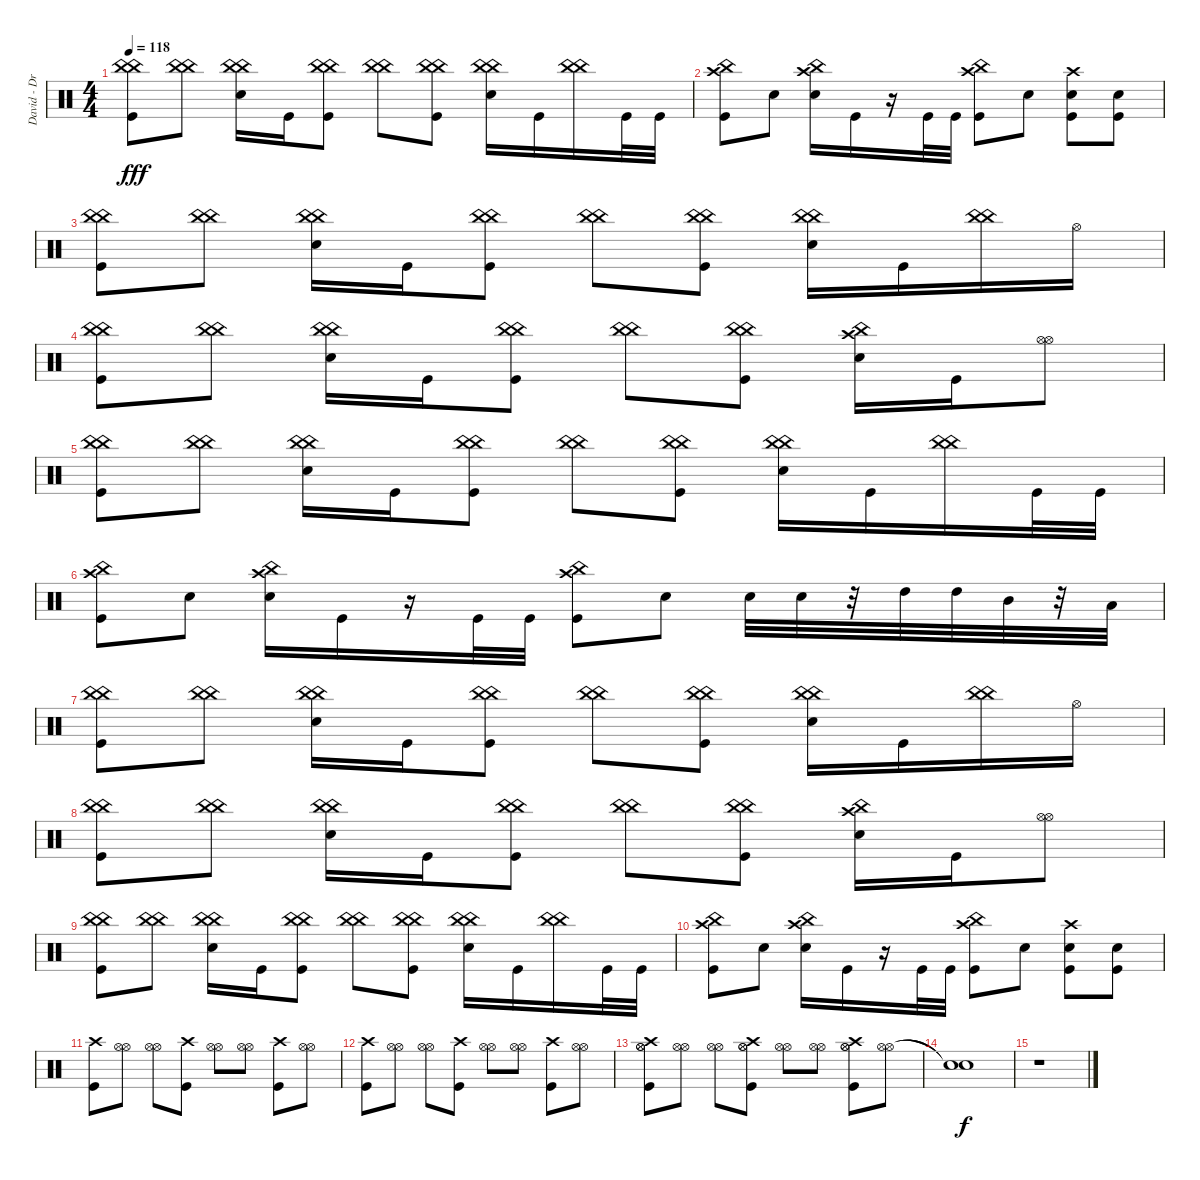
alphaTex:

\track ("David - Drums" "David - Dr") {instrument percussion}
\staff {score}
\articulation defaults
\ts (4 4)
\tempo 118
\clef neutral
\ks c
("China (hit)" "China (hit)" "Kick (hit)").8{dy fff} ("China (hit)" "China (hit)").8 ("China (hit)" "China (hit)" "Snare (hit) 2").16 "Kick (hit)".16 ("China (hit)" "China (hit)" "Kick (hit)").8 ("China (hit)" "China (hit)").8 ("China (hit)" "China (hit)" "Kick (hit)").8 ("China (hit)" "China (hit)" "Snare (hit) 2").16 "Kick (hit)".16 ("China (hit)" "China (hit)").16 "Kick (hit)".32 "Kick (hit)".32 |
("Crash high (hit)" "China (hit)" "Kick (hit)").8 "Snare (hit) 2".8 ("Crash high (hit)" "China (hit)" "Snare (hit) 2").16 "Kick (hit)".16 r.16 "Kick (hit)".32 "Kick (hit)".32 ("Crash high (hit)" "China (hit)" "Kick (hit)").8 "Snare (hit) 2".8 ("Crash high (hit)" "Snare (hit) 2" "Kick (hit)").8 ("Snare (hit) 2" "Kick (hit)").8 |
("China (hit)" "China (hit)" "Kick (hit)").8 ("China (hit)" "China (hit)").8 ("China (hit)" "China (hit)" "Snare (hit) 2").16 "Kick (hit)".16 ("China (hit)" "China (hit)" "Kick (hit)").8 ("China (hit)" "China (hit)").8 ("China (hit)" "China (hit)" "Kick (hit)").8 ("China (hit)" "China (hit)" "Snare (hit) 2").16 "Kick (hit)".16 ("China (hit)" "China (hit)").16 "Hi-Hat (open)".16 |
("China (hit)" "China (hit)" "Kick (hit)").8 ("China (hit)" "China (hit)").8 ("China (hit)" "China (hit)" "Snare (hit) 2").16 "Kick (hit)".16 ("China (hit)" "China (hit)" "Kick (hit)").8 ("China (hit)" "China (hit)").8 ("China (hit)" "China (hit)" "Kick (hit)").8 ("Crash high (hit)" "China (hit)" "Snare (hit) 2").16 "Kick (hit)".16 ("Hi-Hat (open)" "Hi-Hat (open)").8 |
("China (hit)" "China (hit)" "Kick (hit)").8 ("China (hit)" "China (hit)").8 ("China (hit)" "China (hit)" "Snare (hit) 2").16 "Kick (hit)".16 ("China (hit)" "China (hit)" "Kick (hit)").8 ("China (hit)" "China (hit)").8 ("China (hit)" "China (hit)" "Kick (hit)").8 ("China (hit)" "China (hit)" "Snare (hit) 2").16 "Kick (hit)".16 ("China (hit)" "China (hit)").16 "Kick (hit)".32 "Kick (hit)".32 |
("Crash high (hit)" "China (hit)" "Kick (hit)").8 "Snare (hit) 2".8 ("China (hit)" "Crash high (hit)" "Snare (hit) 2").16 "Kick (hit)".16 r.16 "Kick (hit)".32 "Kick (hit)".32 ("Crash high (hit)" "China (hit)" "Kick (hit)").8 "Snare (hit) 2".8 "Snare (hit) 2".32 "Snare (hit) 2".32 r.32 "High Tom (hit)".32 "High Tom (hit)".32 "Mid Tom (hit)".32 r.32 "Low Tom (hit)".32 |
("China (hit)" "China (hit)" "Kick (hit)").8 ("China (hit)" "China (hit)").8 ("China (hit)" "China (hit)" "Snare (hit) 2").16 "Kick (hit)".16 ("China (hit)" "China (hit)" "Kick (hit)").8 ("China (hit)" "China (hit)").8 ("China (hit)" "China (hit)" "Kick (hit)").8 ("China (hit)" "China (hit)" "Snare (hit) 2").16 "Kick (hit)".16 ("China (hit)" "China (hit)").16 "Hi-Hat (open)".16 |
("China (hit)" "China (hit)" "Kick (hit)").8 ("China (hit)" "China (hit)").8 ("China (hit)" "China (hit)" "Snare (hit) 2").16 "Kick (hit)".16 ("China (hit)" "China (hit)" "Kick (hit)").8 ("China (hit)" "China (hit)").8 ("China (hit)" "China (hit)" "Kick (hit)").8 ("Crash high (hit)" "China (hit)" "Snare (hit) 2").16 "Kick (hit)".16 ("Hi-Hat (open)" "Hi-Hat (open)").8 |
("China (hit)" "China (hit)" "Kick (hit)").8 ("China (hit)" "China (hit)").8 ("China (hit)" "China (hit)" "Snare (hit) 2").16 "Kick (hit)".16 ("China (hit)" "China (hit)" "Kick (hit)").8 ("China (hit)" "China (hit)").8 ("China (hit)" "China (hit)" "Kick (hit)").8 ("China (hit)" "China (hit)" "Snare (hit) 2").16 "Kick (hit)".16 ("China (hit)" "China (hit)").16 "Kick (hit)".32 "Kick (hit)".32 |
("Crash high (hit)" "China (hit)" "Kick (hit)").8 "Snare (hit) 2".8 ("Crash high (hit)" "China (hit)" "Snare (hit) 2").16 "Kick (hit)".16 r.16 "Kick (hit)".32 "Kick (hit)".32 ("Crash high (hit)" "China (hit)" "Kick (hit)").8 "Snare (hit) 2".8 ("Crash high (hit)" "Snare (hit) 2" "Kick (hit)").8 ("Snare (hit) 2" "Kick (hit)").8 |
("Crash high (hit)" "Kick (hit)").8 ("Hi-Hat (open)" "Hi-Hat (open)").8 ("Hi-Hat (open)" "Hi-Hat (open)").8 ("Crash high (hit)" "Kick (hit)").8 ("Hi-Hat (open)" "Hi-Hat (open)").8 ("Hi-Hat (open)" "Hi-Hat (open)").8 ("Crash high (hit)" "Kick (hit)").8 ("Hi-Hat (open)" "Hi-Hat (open)").8 |
("Crash high (hit)" "Kick (hit)").8 ("Hi-Hat (open)" "Hi-Hat (open)").8 ("Hi-Hat (open)" "Hi-Hat (open)").8 ("Crash high (hit)" "Kick (hit)").8 ("Hi-Hat (open)" "Hi-Hat (open)").8 ("Hi-Hat (open)" "Hi-Hat (open)").8 ("Crash high (hit)" "Kick (hit)").8 ("Hi-Hat (open)" "Hi-Hat (open)").8 |
("Hi-Hat (open)" "Crash high (hit)" "Hi-Hat (open)" "Kick (hit)").8 ("Hi-Hat (open)" "Hi-Hat (open)").8 ("Hi-Hat (open)" "Hi-Hat (open)").8 ("Hi-Hat (open)" "Crash high (hit)" "Hi-Hat (open)" "Kick (hit)").8 ("Hi-Hat (open)" "Hi-Hat (open)").8 ("Hi-Hat (open)" "Hi-Hat (open)").8 ("Hi-Hat (open)" "Crash high (hit)" "Hi-Hat (open)" "Kick (hit)").8 ("Hi-Hat (open)" "Hi-Hat (open)").8 |
("Snare (hit)"{t} "Snare (hit)"{t}).1{dy f} |
r.1
